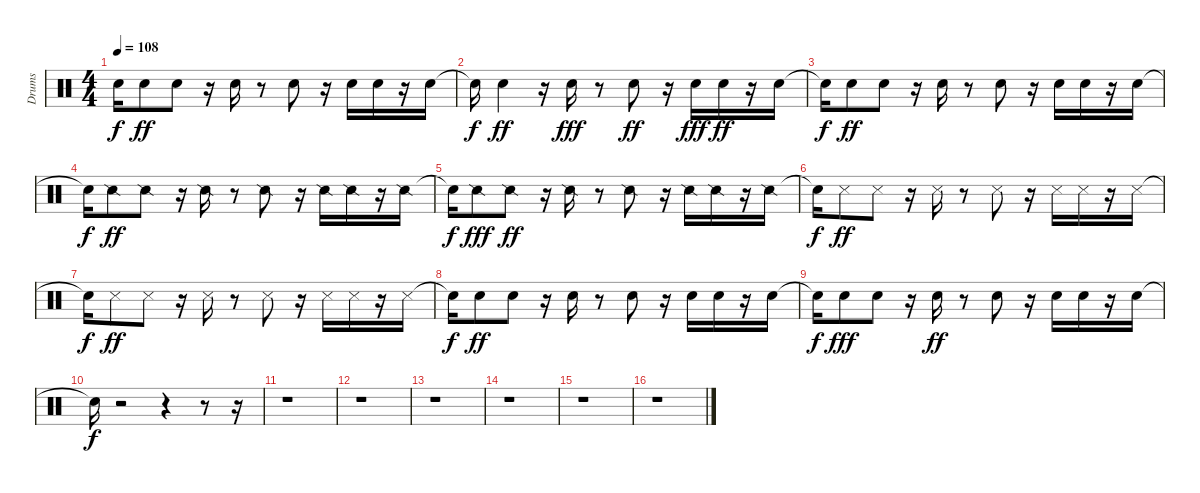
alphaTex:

\track ("Drums" "Drums") {instrument percussion}
\staff {score}
\articulation defaults
\ts (4 4)
\tempo 108
\clef neutral
\ks c "Snare (hit)"{t}.16{dy f} "Hand Clap (hit)".8{dy ff} "Hand Clap (hit)".8
r.16 "Hand Clap (hit)".16 r.8 "Hand Clap (hit)".8 r.16 "Hand Clap (hit)".16 "Hand Clap (hit)".16 r.16 "Hand Clap (hit)".16 |
"Snare (hit)"{t}.16{dy f} "Metronome (bell)".4{dy ff} r.16 "Metronome (bell)".16{dy fff} r.8 "Metronome (bell)".8{dy ff} r.16 "Metronome (bell)".16{dy fff} "Metronome (bell)".16{dy ff} r.16 "Metronome (bell)".16 |
"Snare (hit)"{t}.16{dy f} "Metronome (bell)".8{dy ff} "Metronome (bell)".8 r.16 "Metronome (bell)".16 r.8 "Metronome (bell)".8 r.16 "Metronome (bell)".16 "Metronome (bell)".16 r.16 "Metronome (bell)".16 |
"Snare (hit)"{t}.16{dy f} "Snare (side stick) 2".8{dy ff} "Snare (side stick) 2".8 r.16 "Snare (side stick) 2".16 r.8 "Snare (side stick) 2".8 r.16 "Snare (side stick) 2".16 "Snare (side stick) 2".16 r.16 "Snare (side stick) 2".16 |
"Snare (hit)"{t}.16{dy f} "Snare (side stick) 2".8{dy fff} "Snare (side stick) 2".8{dy ff} r.16 "Snare (side stick) 2".16 r.8 "Snare (side stick) 2".8 r.16 "Snare (side stick) 2".16 "Snare (side stick) 2".16 r.16 "Snare (side stick) 2".16 |
"Snare (hit)"{t}.16{dy f} "Snare (side stick) 3".8{dy ff} "Snare (side stick) 3".8 r.16 "Snare (side stick) 3".16 r.8 "Snare (side stick) 3".8 r.16 "Snare (side stick) 3".16 "Snare (side stick) 3".16 r.16 "Snare (side stick) 3".16 |
"Snare (hit)"{t}.16{dy f} "Snare (side stick) 3".8{dy ff} "Snare (side stick) 3".8 r.16 "Snare (side stick) 3".16 r.8 "Snare (side stick) 3".8 r.16 "Snare (side stick) 3".16 "Snare (side stick) 3".16 r.16 "Snare (side stick) 3".16 |
"Snare (hit)"{t}.16{dy f} "Hand Clap (hit)".8{dy ff} "Hand Clap (hit)".8 r.16 "Hand Clap (hit)".16 r.8 "Hand Clap (hit)".8 r.16 "Hand Clap (hit)".16 "Hand Clap (hit)".16 r.16 "Hand Clap (hit)".16 |
"Snare (hit)"{t}.16{dy f} "Hand Clap (hit)".8{dy fff} "Hand Clap (hit)".8 r.16 "Hand Clap (hit)".16{dy ff} r.8 "Hand Clap (hit)".8 r.16 "Hand Clap (hit)".16 "Hand Clap (hit)".16 r.16 "Hand Clap (hit)".16 |
"Snare (hit)"{t}.16{dy f} r.2 r.4 r.8 r.16 |
r.1 |
r.1 |
r.1 |
r.1 |
r.1 |
r.1
